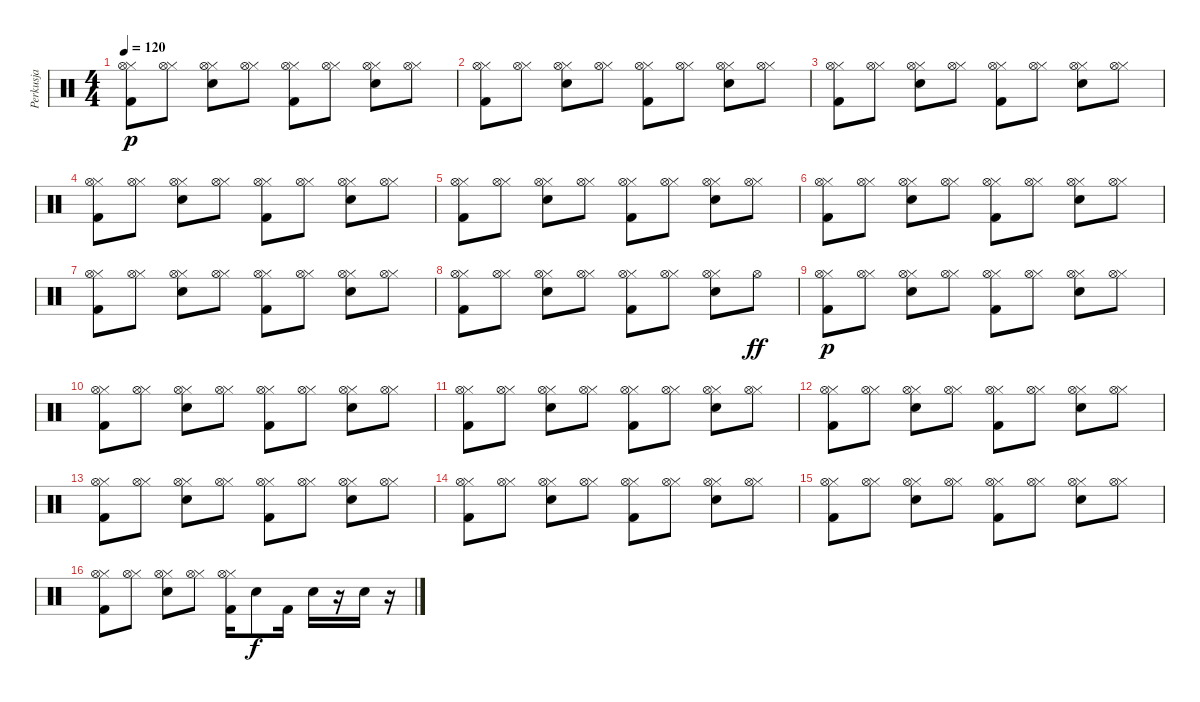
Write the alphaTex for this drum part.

\track ("Perkusja" "Perkusja") {instrument percussion}
\staff {score}
\articulation defaults
\ts (4 4)
\tempo 120
\clef neutral
\ks c
("Kick (hit) 2" "Hi-Hat (closed)" "Hi-Hat (open)").8{dy p} ("Hi-Hat (closed)" "Hi-Hat (open)").8 ("Electric Snare (hit)" "Hi-Hat (closed)" "Hi-Hat (open)").8 ("Hi-Hat (closed)" "Hi-Hat (open)").8 ("Kick (hit) 2" "Hi-Hat (closed)" "Hi-Hat (open)").8 ("Hi-Hat (closed)" "Hi-Hat (open)").8 ("Electric Snare (hit)" "Hi-Hat (closed)" "Hi-Hat (open)").8 ("Hi-Hat (closed)" "Hi-Hat (open)").8 |
("Kick (hit) 2" "Hi-Hat (closed)" "Hi-Hat (open)").8 ("Hi-Hat (closed)" "Hi-Hat (open)").8 ("Electric Snare (hit)" "Hi-Hat (closed)" "Hi-Hat (open)").8 ("Hi-Hat (closed)" "Hi-Hat (open)").8 ("Kick (hit) 2" "Hi-Hat (closed)" "Hi-Hat (open)").8 ("Hi-Hat (closed)" "Hi-Hat (open)").8 ("Electric Snare (hit)" "Hi-Hat (closed)" "Hi-Hat (open)").8 ("Hi-Hat (closed)" "Hi-Hat (open)").8 |
("Kick (hit) 2" "Hi-Hat (closed)" "Hi-Hat (open)").8 ("Hi-Hat (closed)" "Hi-Hat (open)").8 ("Electric Snare (hit)" "Hi-Hat (closed)" "Hi-Hat (open)").8 ("Hi-Hat (closed)" "Hi-Hat (open)").8 ("Kick (hit) 2" "Hi-Hat (closed)" "Hi-Hat (open)").8 ("Hi-Hat (closed)" "Hi-Hat (open)").8 ("Electric Snare (hit)" "Hi-Hat (closed)" "Hi-Hat (open)").8 ("Hi-Hat (closed)" "Hi-Hat (open)").8 |
("Kick (hit) 2" "Hi-Hat (closed)" "Hi-Hat (open)").8 ("Hi-Hat (closed)" "Hi-Hat (open)").8 ("Electric Snare (hit)" "Hi-Hat (closed)" "Hi-Hat (open)").8 ("Hi-Hat (closed)" "Hi-Hat (open)").8 ("Kick (hit) 2" "Hi-Hat (closed)" "Hi-Hat (open)").8 ("Hi-Hat (closed)" "Hi-Hat (open)").8 ("Electric Snare (hit)" "Hi-Hat (closed)" "Hi-Hat (open)").8 ("Hi-Hat (closed)" "Hi-Hat (open)").8 |
("Kick (hit) 2" "Hi-Hat (closed)" "Hi-Hat (open)").8 ("Hi-Hat (closed)" "Hi-Hat (open)").8 ("Electric Snare (hit)" "Hi-Hat (closed)" "Hi-Hat (open)").8 ("Hi-Hat (closed)" "Hi-Hat (open)").8 ("Kick (hit) 2" "Hi-Hat (closed)" "Hi-Hat (open)").8 ("Hi-Hat (closed)" "Hi-Hat (open)").8 ("Electric Snare (hit)" "Hi-Hat (closed)" "Hi-Hat (open)").8 ("Hi-Hat (closed)" "Hi-Hat (open)").8 |
("Kick (hit) 2" "Hi-Hat (closed)" "Hi-Hat (open)").8 ("Hi-Hat (closed)" "Hi-Hat (open)").8 ("Electric Snare (hit)" "Hi-Hat (closed)" "Hi-Hat (open)").8 ("Hi-Hat (closed)" "Hi-Hat (open)").8 ("Kick (hit) 2" "Hi-Hat (closed)" "Hi-Hat (open)").8 ("Hi-Hat (closed)" "Hi-Hat (open)").8 ("Electric Snare (hit)" "Hi-Hat (closed)" "Hi-Hat (open)").8 ("Hi-Hat (closed)" "Hi-Hat (open)").8 |
("Kick (hit) 2" "Hi-Hat (closed)" "Hi-Hat (open)").8 ("Hi-Hat (closed)" "Hi-Hat (open)").8 ("Electric Snare (hit)" "Hi-Hat (closed)" "Hi-Hat (open)").8 ("Hi-Hat (closed)" "Hi-Hat (open)").8 ("Kick (hit) 2" "Hi-Hat (closed)" "Hi-Hat (open)").8 ("Hi-Hat (closed)" "Hi-Hat (open)").8 ("Electric Snare (hit)" "Hi-Hat (closed)" "Hi-Hat (open)").8 ("Hi-Hat (closed)" "Hi-Hat (open)").8 |
("Kick (hit) 2" "Hi-Hat (closed)" "Hi-Hat (open)").8 ("Hi-Hat (closed)" "Hi-Hat (open)").8 ("Electric Snare (hit)" "Hi-Hat (closed)" "Hi-Hat (open)").8 ("Hi-Hat (closed)" "Hi-Hat (open)").8 ("Kick (hit) 2" "Hi-Hat (closed)" "Hi-Hat (open)").8 ("Hi-Hat (closed)" "Hi-Hat (open)").8 ("Electric Snare (hit)" "Hi-Hat (closed)" "Hi-Hat (open)").8 "Hi-Hat (open)".8{dy ff} |
("Kick (hit) 2" "Hi-Hat (closed)" "Hi-Hat (open)").8{dy p} ("Hi-Hat (closed)" "Hi-Hat (open)").8 ("Electric Snare (hit)" "Hi-Hat (closed)" "Hi-Hat (open)").8 ("Hi-Hat (closed)" "Hi-Hat (open)").8 ("Kick (hit) 2" "Hi-Hat (closed)" "Hi-Hat (open)").8 ("Hi-Hat (closed)" "Hi-Hat (open)").8 ("Electric Snare (hit)" "Hi-Hat (closed)" "Hi-Hat (open)").8 ("Hi-Hat (closed)" "Hi-Hat (open)").8 |
("Kick (hit) 2" "Hi-Hat (closed)" "Hi-Hat (open)").8 ("Hi-Hat (closed)" "Hi-Hat (open)").8 ("Electric Snare (hit)" "Hi-Hat (closed)" "Hi-Hat (open)").8 ("Hi-Hat (closed)" "Hi-Hat (open)").8 ("Kick (hit) 2" "Hi-Hat (closed)" "Hi-Hat (open)").8 ("Hi-Hat (closed)" "Hi-Hat (open)").8 ("Electric Snare (hit)" "Hi-Hat (closed)" "Hi-Hat (open)").8 ("Hi-Hat (closed)" "Hi-Hat (open)").8 |
("Kick (hit) 2" "Hi-Hat (closed)" "Hi-Hat (open)").8 ("Hi-Hat (closed)" "Hi-Hat (open)").8 ("Electric Snare (hit)" "Hi-Hat (closed)" "Hi-Hat (open)").8 ("Hi-Hat (closed)" "Hi-Hat (open)").8 ("Kick (hit) 2" "Hi-Hat (closed)" "Hi-Hat (open)").8 ("Hi-Hat (closed)" "Hi-Hat (open)").8 ("Electric Snare (hit)" "Hi-Hat (closed)" "Hi-Hat (open)").8 ("Hi-Hat (closed)" "Hi-Hat (open)").8 |
("Kick (hit) 2" "Hi-Hat (closed)" "Hi-Hat (open)").8 ("Hi-Hat (closed)" "Hi-Hat (open)").8 ("Electric Snare (hit)" "Hi-Hat (closed)" "Hi-Hat (open)").8 ("Hi-Hat (closed)" "Hi-Hat (open)").8 ("Kick (hit) 2" "Hi-Hat (closed)" "Hi-Hat (open)").8 ("Hi-Hat (closed)" "Hi-Hat (open)").8 ("Electric Snare (hit)" "Hi-Hat (closed)" "Hi-Hat (open)").8 ("Hi-Hat (closed)" "Hi-Hat (open)").8 |
("Kick (hit) 2" "Hi-Hat (closed)" "Hi-Hat (open)").8 ("Hi-Hat (closed)" "Hi-Hat (open)").8 ("Electric Snare (hit)" "Hi-Hat (closed)" "Hi-Hat (open)").8 ("Hi-Hat (closed)" "Hi-Hat (open)").8 ("Kick (hit) 2" "Hi-Hat (closed)" "Hi-Hat (open)").8 ("Hi-Hat (closed)" "Hi-Hat (open)").8 ("Electric Snare (hit)" "Hi-Hat (closed)" "Hi-Hat (open)").8 ("Hi-Hat (closed)" "Hi-Hat (open)").8 |
("Kick (hit) 2" "Hi-Hat (closed)" "Hi-Hat (open)").8 ("Hi-Hat (closed)" "Hi-Hat (open)").8 ("Electric Snare (hit)" "Hi-Hat (closed)" "Hi-Hat (open)").8 ("Hi-Hat (closed)" "Hi-Hat (open)").8 ("Kick (hit) 2" "Hi-Hat (closed)" "Hi-Hat (open)").8 ("Hi-Hat (closed)" "Hi-Hat (open)").8 ("Electric Snare (hit)" "Hi-Hat (closed)" "Hi-Hat (open)").8 ("Hi-Hat (closed)" "Hi-Hat (open)").8 |
("Kick (hit) 2" "Hi-Hat (closed)" "Hi-Hat (open)").8 ("Hi-Hat (closed)" "Hi-Hat (open)").8 ("Electric Snare (hit)" "Hi-Hat (closed)" "Hi-Hat (open)").8 ("Hi-Hat (closed)" "Hi-Hat (open)").8 ("Kick (hit) 2" "Hi-Hat (closed)" "Hi-Hat (open)").8 ("Hi-Hat (closed)" "Hi-Hat (open)").8 ("Electric Snare (hit)" "Hi-Hat (closed)" "Hi-Hat (open)").8 ("Hi-Hat (closed)" "Hi-Hat (open)").8 |
("Kick (hit) 2" "Hi-Hat (closed)" "Hi-Hat (open)").8 ("Hi-Hat (closed)" "Hi-Hat (open)").8 ("Electric Snare (hit)" "Hi-Hat (closed)" "Hi-Hat (open)").8 ("Hi-Hat (closed)" "Hi-Hat (open)").8 ("Kick (hit) 2" "Hi-Hat (closed)" "Hi-Hat (open)").16 "Electric Snare (hit)".8{dy f} "Kick (hit) 2".16 "Electric Snare (hit)".16 r.16 "Electric Snare (hit)".16 r.16
